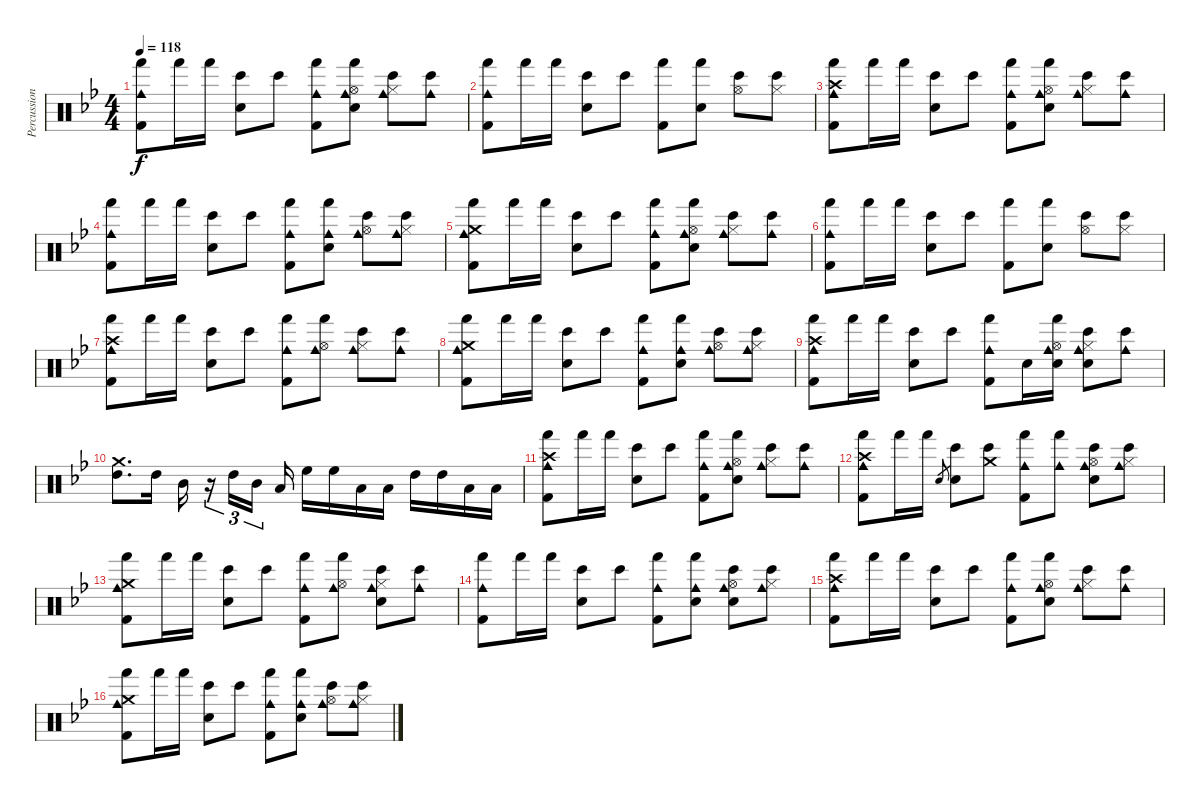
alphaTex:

\track ("Percussion" "Percussion") {instrument percussion}
\staff {score}
\articulation defaults
\ts (4 4)
\tempo 118
\clef neutral
\ks gminor
("Cowbell medium (hit)" "Hand (hit)" "Kick (hit) 2").8{dy f} "Hand (hit)".16 "Hand (hit)".16 ("Bongo High (hit)" "Electric Snare (hit)").8 "Bongo High (hit)".8 ("Cowbell medium (hit)" "Hand (hit)" "Kick (hit) 2").8 ("Cowbell medium (hit)" "Hand (hit)" "Electric Snare (hit)" "Hi-Hat (open)").8 ("Cowbell medium (hit)" "Bongo High (hit)" "Hi-Hat (closed)").8 ("Cowbell medium (hit)" "Bongo High (hit)").8 |
("Cowbell medium (hit)" "Hand (hit)" "Kick (hit) 2").8 "Hand (hit)".16 "Hand (hit)".16 ("Bongo High (hit)" "Electric Snare (hit)").8 "Bongo High (hit)".8 ("Hand (hit)" "Kick (hit) 2").8 ("Hand (hit)" "Electric Snare (hit)").8 ("Bongo High (hit)" "Hi-Hat (open)").8 ("Bongo High (hit)" "Hi-Hat (closed)").8 |
("Cowbell medium (hit)" "Hand (hit)" "Crash high (hit)" "Kick (hit) 2").8 "Hand (hit)".16 "Hand (hit)".16 ("Bongo High (hit)" "Electric Snare (hit)").8 "Bongo High (hit)".8 ("Cowbell medium (hit)" "Hand (hit)" "Kick (hit) 2").8 ("Cowbell medium (hit)" "Hand (hit)" "Electric Snare (hit)" "Hi-Hat (open)").8 ("Cowbell medium (hit)" "Bongo High (hit)" "Hi-Hat (closed)").8 ("Cowbell medium (hit)" "Bongo High (hit)").8 |
("Cowbell medium (hit)" "Hand (hit)" "Kick (hit) 2").8 "Hand (hit)".16 "Hand (hit)".16 ("Bongo High (hit)" "Electric Snare (hit)").8 "Bongo High (hit)".8 ("Cowbell medium (hit)" "Hand (hit)" "Kick (hit) 2").8 ("Cowbell medium (hit)" "Hand (hit)" "Electric Snare (hit)").8 ("Cowbell medium (hit)" "Bongo High (hit)" "Hi-Hat (open)").8 ("Cowbell medium (hit)" "Bongo High (hit)" "Hi-Hat (closed)").8 |
("Cowbell medium (hit)" "Hand (hit)" "Crash medium (hit)" "Kick (hit) 2").8 "Hand (hit)".16 "Hand (hit)".16 ("Bongo High (hit)" "Electric Snare (hit)").8 "Bongo High (hit)".8 ("Cowbell medium (hit)" "Hand (hit)" "Kick (hit) 2").8 ("Cowbell medium (hit)" "Hand (hit)" "Electric Snare (hit)" "Hi-Hat (open)").8 ("Cowbell medium (hit)" "Bongo High (hit)" "Hi-Hat (closed)").8 ("Cowbell medium (hit)" "Bongo High (hit)").8 |
("Cowbell medium (hit)" "Hand (hit)" "Kick (hit) 2").8 "Hand (hit)".16 "Hand (hit)".16 ("Bongo High (hit)" "Electric Snare (hit)").8 "Bongo High (hit)".8 ("Hand (hit)" "Kick (hit) 2").8 ("Hand (hit)" "Electric Snare (hit)").8 ("Bongo High (hit)" "Hi-Hat (open)").8 ("Bongo High (hit)" "Hi-Hat (closed)").8 |
("Cowbell medium (hit)" "Hand (hit)" "Crash high (hit)" "Kick (hit) 2").8 "Hand (hit)".16 "Hand (hit)".16 ("Bongo High (hit)" "Electric Snare (hit)").8 "Bongo High (hit)".8 ("Cowbell medium (hit)" "Hand (hit)" "Kick (hit) 2").8 ("Cowbell medium (hit)" "Hand (hit)" "Hi-Hat (open)").8 ("Cowbell medium (hit)" "Bongo High (hit)" "Hi-Hat (closed)").8 ("Cowbell medium (hit)" "Bongo High (hit)").8 |
("Cowbell medium (hit)" "Hand (hit)" "Crash medium (hit)" "Kick (hit) 2").8 "Hand (hit)".16 "Hand (hit)".16 ("Bongo High (hit)" "Electric Snare (hit)").8 "Bongo High (hit)".8 ("Cowbell medium (hit)" "Hand (hit)" "Kick (hit) 2").8 ("Cowbell medium (hit)" "Hand (hit)" "Electric Snare (hit)").8 ("Cowbell medium (hit)" "Bongo High (hit)" "Hi-Hat (open)").8 ("Cowbell medium (hit)" "Bongo High (hit)" "Hi-Hat (closed)").8 |
("Cowbell medium (hit)" "Hand (hit)" "Crash high (hit)" "Kick (hit) 2").8 "Hand (hit)".16 "Hand (hit)".16 ("Bongo High (hit)" "Electric Snare (hit)").8 "Bongo High (hit)".8 ("Cowbell medium (hit)" "Hand (hit)" "Kick (hit) 2").8 "Electric Snare (hit)".16 ("Cowbell medium (hit)" "Hand (hit)" "Electric Snare (hit)" "Hi-Hat (open)").16 ("Cowbell medium (hit)" "Bongo High (hit)" "Electric Snare (hit)" "Hi-Hat (closed)").8 ("Cowbell medium (hit)" "Bongo High (hit)").8 |
("Crash medium (hit)" "High Tom (hit)").8{d volume 16} "High Tom (hit)".16 "Mid Tom (hit)".16 r.16{tu (3 2)} "High Tom (hit)".16{tu (3 2)} "Mid Tom (hit)".16{tu (3 2)} "Low Tom (hit)".16 "High Floor Tom (hit)".16 "High Floor Tom (hit)".16 "Low Tom (hit)".16 "Low Tom (hit)".16 "High Tom (hit)".16 "High Tom (hit)".16 "Low Tom (hit)".16{balance 0} "Low Tom (hit)".16 |
("Cowbell medium (hit)" "Hand (hit)" "Crash high (hit)" "Kick (hit) 2").8{volume 13 balance 8} "Hand (hit)".16 "Hand (hit)".16 ("Bongo High (hit)" "Electric Snare (hit)").8 "Bongo High (hit)".8 ("Cowbell medium (hit)" "Hand (hit)" "Kick (hit) 2").8 ("Cowbell medium (hit)" "Hand (hit)" "Electric Snare (hit)" "Hi-Hat (open)").8 ("Cowbell medium (hit)" "Bongo High (hit)" "Hi-Hat (closed)").8 ("Cowbell medium (hit)" "Bongo High (hit)").8 |
("Cowbell medium (hit)" "Hand (hit)" "Crash high (hit)" "Kick (hit) 2").8 "Hand (hit)".16 "Hand (hit)".16 "Electric Snare (hit)".8{gr} ("Bongo High (hit)" "Electric Snare (hit)").8{volume 16} ("Bongo High (hit)" "Crash medium (hit)").8{volume 12} ("Cowbell medium (hit)" "Hand (hit)" "Kick (hit) 2").8 ("Cowbell medium (hit)" "Hand (hit)").8 ("Cowbell medium (hit)" "Bongo High (hit)" "Electric Snare (hit)" "Hi-Hat (open)").8 ("Cowbell medium (hit)" "Bongo High (hit)" "Hi-Hat (closed)").8 |
("Cowbell medium (hit)" "Hand (hit)" "Crash medium (hit)" "Kick (hit) 2").8 "Hand (hit)".16 "Hand (hit)".16 ("Bongo High (hit)" "Electric Snare (hit)").8 "Bongo High (hit)".8 ("Cowbell medium (hit)" "Hand (hit)" "Kick (hit) 2").8 ("Cowbell medium (hit)" "Hand (hit)" "Hi-Hat (open)").8 ("Cowbell medium (hit)" "Bongo High (hit)" "Electric Snare (hit)" "Hi-Hat (closed)").8 ("Cowbell medium (hit)" "Bongo High (hit)").8 |
("Cowbell medium (hit)" "Hand (hit)" "Kick (hit) 2").8 "Hand (hit)".16 "Hand (hit)".16 ("Bongo High (hit)" "Electric Snare (hit)").8 "Bongo High (hit)".8 ("Cowbell medium (hit)" "Hand (hit)" "Kick (hit) 2").8 ("Cowbell medium (hit)" "Hand (hit)" "Electric Snare (hit)").8 ("Cowbell medium (hit)" "Bongo High (hit)" "Electric Snare (hit)" "Hi-Hat (open)").8 ("Cowbell medium (hit)" "Bongo High (hit)" "Hi-Hat (closed)").8 |
("Cowbell medium (hit)" "Hand (hit)" "Crash high (hit)" "Kick (hit) 2").8 "Hand (hit)".16 "Hand (hit)".16 ("Bongo High (hit)" "Electric Snare (hit)").8 "Bongo High (hit)".8 ("Cowbell medium (hit)" "Hand (hit)" "Kick (hit) 2").8 ("Cowbell medium (hit)" "Hand (hit)" "Electric Snare (hit)" "Hi-Hat (open)").8 ("Cowbell medium (hit)" "Bongo High (hit)" "Hi-Hat (closed)").8 ("Cowbell medium (hit)" "Bongo High (hit)").8 |
("Cowbell medium (hit)" "Hand (hit)" "Crash medium (hit)" "Kick (hit) 2").8 "Hand (hit)".16 "Hand (hit)".16 ("Bongo High (hit)" "Electric Snare (hit)").8 "Bongo High (hit)".8 ("Cowbell medium (hit)" "Hand (hit)" "Kick (hit) 2").8 ("Cowbell medium (hit)" "Hand (hit)" "Electric Snare (hit)").8 ("Cowbell medium (hit)" "Bongo High (hit)" "Hi-Hat (open)").8 ("Cowbell medium (hit)" "Bongo High (hit)" "Hi-Hat (closed)").8
